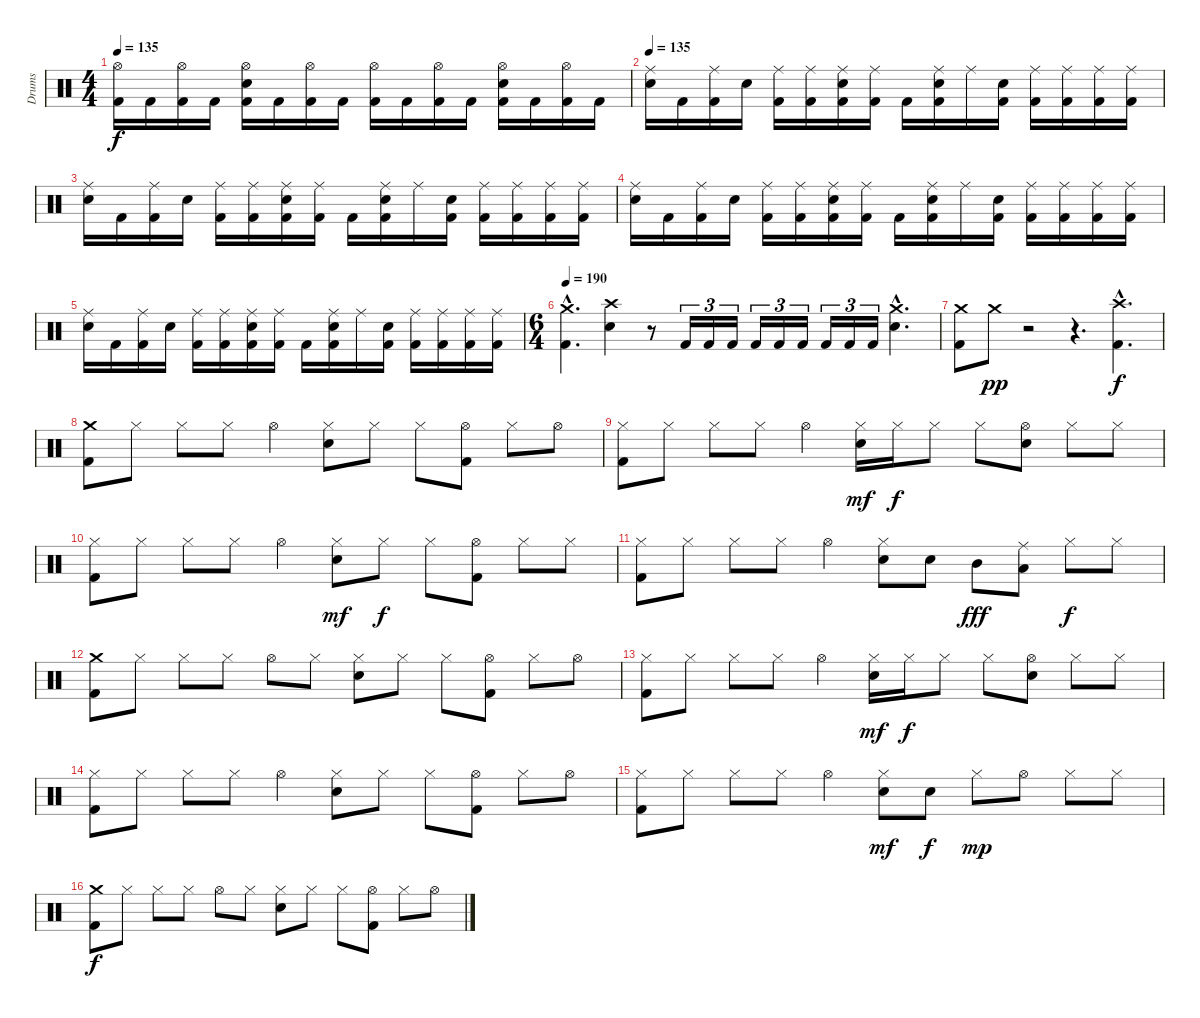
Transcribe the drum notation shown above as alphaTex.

\track ("Drums" "Drums") {instrument percussion}
\staff {score}
\articulation defaults
\ts (4 4)
\tempo 135
\clef neutral
\ks c
("Hi-Hat (open)" "Kick (hit) 2").16{dy f} "Kick (hit) 2".16 ("Hi-Hat (open)" "Kick (hit) 2").16 "Kick (hit) 2".16 ("Hi-Hat (open)" "Electric Snare (hit)" "Kick (hit) 2").16 "Kick (hit) 2".16 ("Hi-Hat (open)" "Kick (hit) 2").16 "Kick (hit) 2".16 ("Hi-Hat (open)" "Kick (hit) 2").16 "Kick (hit) 2".16 ("Hi-Hat (open)" "Kick (hit) 2").16 "Kick (hit) 2".16 ("Hi-Hat (open)" "Electric Snare (hit)" "Kick (hit) 2").16 "Kick (hit) 2".16 ("Hi-Hat (open)" "Kick (hit) 2").16 "Kick (hit) 2".16 |
\tempo 135
("Ride (middle)" "Electric Snare (hit)").16 "Kick (hit) 2".16 ("Ride (middle)" "Kick (hit) 2").16 "Electric Snare (hit)".16 ("Ride (middle)" "Kick (hit) 2").16 ("Ride (middle)" "Kick (hit) 2").16 ("Ride (middle)" "Electric Snare (hit)" "Kick (hit) 2").16 ("Ride (middle)" "Kick (hit) 2").16 "Kick (hit) 2".16 ("Ride (middle)" "Electric Snare (hit)" "Kick (hit) 2").16 "Ride (middle)".16 ("Electric Snare (hit)" "Kick (hit) 2").16 ("Ride (middle)" "Kick (hit) 2").16 ("Ride (middle)" "Kick (hit) 2").16 ("Ride (middle)" "Kick (hit) 2").16 ("Ride (middle)" "Kick (hit) 2").16 |
("Ride (middle)" "Electric Snare (hit)").16 "Kick (hit) 2".16 ("Ride (middle)" "Kick (hit) 2").16 "Electric Snare (hit)".16 ("Ride (middle)" "Kick (hit) 2").16 ("Ride (middle)" "Kick (hit) 2").16 ("Ride (middle)" "Electric Snare (hit)" "Kick (hit) 2").16 ("Ride (middle)" "Kick (hit) 2").16 "Kick (hit) 2".16 ("Ride (middle)" "Electric Snare (hit)" "Kick (hit) 2").16 "Ride (middle)".16 ("Electric Snare (hit)" "Kick (hit) 2").16 ("Ride (middle)" "Kick (hit) 2").16 ("Ride (middle)" "Kick (hit) 2").16 ("Ride (middle)" "Kick (hit) 2").16 ("Ride (middle)" "Kick (hit) 2").16 |
("Ride (middle)" "Electric Snare (hit)").16 "Kick (hit) 2".16 ("Ride (middle)" "Kick (hit) 2").16 "Electric Snare (hit)".16 ("Ride (middle)" "Kick (hit) 2").16 ("Ride (middle)" "Kick (hit) 2").16 ("Ride (middle)" "Electric Snare (hit)" "Kick (hit) 2").16 ("Ride (middle)" "Kick (hit) 2").16 "Kick (hit) 2".16 ("Ride (middle)" "Electric Snare (hit)" "Kick (hit) 2").16 "Ride (middle)".16 ("Electric Snare (hit)" "Kick (hit) 2").16 ("Ride (middle)" "Kick (hit) 2").16 ("Ride (middle)" "Kick (hit) 2").16 ("Ride (middle)" "Kick (hit) 2").16 ("Ride (middle)" "Kick (hit) 2").16 |
("Ride (middle)" "Electric Snare (hit)").16 "Kick (hit) 2".16 ("Ride (middle)" "Kick (hit) 2").16 "Electric Snare (hit)".16 ("Ride (middle)" "Kick (hit) 2").16 ("Ride (middle)" "Kick (hit) 2").16 ("Ride (middle)" "Electric Snare (hit)" "Kick (hit) 2").16 ("Ride (middle)" "Kick (hit) 2").16 "Kick (hit) 2".16 ("Ride (middle)" "Electric Snare (hit)" "Kick (hit) 2").16 "Ride (middle)".16 ("Electric Snare (hit)" "Kick (hit) 2").16 ("Ride (middle)" "Kick (hit) 2").16 ("Ride (middle)" "Kick (hit) 2").16 ("Ride (middle)" "Kick (hit) 2").16 ("Ride (middle)" "Kick (hit) 2").16 |
\ts (6 4)
\tempo 190
("Crash medium (hit)"{hac} "Kick (hit) 2"{hac}).4{d} ("Crash high (hit)" "Electric Snare (hit)").4 r.8 "Kick (hit) 2".16{tu (3 2)} "Kick (hit) 2".16{tu (3 2)} "Kick (hit) 2".16{tu (3 2)} "Kick (hit) 2".16{tu (3 2)} "Kick (hit) 2".16{tu (3 2)} "Kick (hit) 2".16{tu (3 2)} "Kick (hit) 2".16{tu (3 2)} "Kick (hit) 2".16{tu (3 2)} "Kick (hit) 2".16{tu (3 2)} ("Crash medium (hit)"{hac} "Electric Snare (hit)"{hac}).4{d} |
("Crash medium (hit)" "Kick (hit) 2").8 "Crash medium (hit)".8{dy pp} r.2 r.4{d} ("Crash high (hit)"{hac} "Kick (hit) 2"{hac}).4{d dy f} |
("Crash medium (hit)" "Kick (hit) 2").8 "Hi-Hat (closed)".8 "Hi-Hat (closed)".8 "Hi-Hat (closed)".8 "Hi-Hat (open)".4 ("Hi-Hat (closed)" "Electric Snare (hit)").8 "Hi-Hat (closed)".8 "Hi-Hat (closed)".8 ("Hi-Hat (open)" "Kick (hit) 2").8 "Hi-Hat (closed)".8 "Hi-Hat (open)".8 |
("Hi-Hat (closed)" "Kick (hit) 2").8 "Hi-Hat (closed)".8 "Hi-Hat (closed)".8 "Hi-Hat (closed)".8 "Hi-Hat (open)".4 ("Hi-Hat (closed)" "Electric Snare (hit)").16{dy mf} "Hi-Hat (closed)".16{dy f} "Hi-Hat (closed)".8 "Hi-Hat (closed)".8 ("Hi-Hat (open)" "Electric Snare (hit)").8 "Hi-Hat (closed)".8 "Hi-Hat (closed)".8 |
("Hi-Hat (closed)" "Kick (hit) 2").8 "Hi-Hat (closed)".8 "Hi-Hat (closed)".8 "Hi-Hat (closed)".8 "Hi-Hat (open)".4 ("Hi-Hat (closed)" "Electric Snare (hit)").8{dy mf} "Hi-Hat (closed)".8{dy f} "Hi-Hat (closed)".8 ("Hi-Hat (open)" "Kick (hit) 2").8 "Hi-Hat (closed)".8 "Hi-Hat (closed)".8 |
("Hi-Hat (closed)" "Kick (hit) 2").8 "Hi-Hat (closed)".8 "Hi-Hat (closed)".8 "Hi-Hat (closed)".8 "Hi-Hat (open)".4 ("Hi-Hat (closed)" "Electric Snare (hit)").8 "Electric Snare (hit)".8 "Mid Tom (hit)".8{dy fff} ("Ride (middle)" "Low Tom (hit)").8 "Hi-Hat (closed)".8{dy f} "Hi-Hat (closed)".8 |
("Crash medium (hit)" "Kick (hit) 2").8 "Hi-Hat (closed)".8 "Hi-Hat (closed)".8 "Hi-Hat (closed)".8 "Hi-Hat (open)".8 "Hi-Hat (closed)".8 ("Hi-Hat (closed)" "Electric Snare (hit)").8 "Hi-Hat (closed)".8 "Hi-Hat (closed)".8 ("Hi-Hat (open)" "Kick (hit) 2").8 "Hi-Hat (closed)".8 "Hi-Hat (open)".8 |
("Hi-Hat (closed)" "Kick (hit) 2").8 "Hi-Hat (closed)".8 "Hi-Hat (closed)".8 "Hi-Hat (closed)".8 "Hi-Hat (open)".4 ("Hi-Hat (closed)" "Electric Snare (hit)").16{dy mf} "Hi-Hat (closed)".16{dy f} "Hi-Hat (closed)".8 "Hi-Hat (closed)".8 ("Hi-Hat (open)" "Electric Snare (hit)").8 "Hi-Hat (closed)".8 "Hi-Hat (closed)".8 |
("Hi-Hat (closed)" "Kick (hit) 2").8 "Hi-Hat (closed)".8 "Hi-Hat (closed)".8 "Hi-Hat (closed)".8 "Hi-Hat (open)".4 ("Hi-Hat (closed)" "Electric Snare (hit)").8 "Hi-Hat (closed)".8 "Hi-Hat (closed)".8 ("Hi-Hat (open)" "Kick (hit) 2").8 "Hi-Hat (closed)".8 "Hi-Hat (open)".8 |
("Hi-Hat (closed)" "Kick (hit) 2").8 "Hi-Hat (closed)".8 "Hi-Hat (closed)".8 "Hi-Hat (closed)".8 "Hi-Hat (open)".4 ("Hi-Hat (closed)" "Electric Snare (hit)").8{dy mf} "Electric Snare (hit)".8{dy f} "Hi-Hat (closed)".8{dy mp} "Hi-Hat (open)".8 "Hi-Hat (closed)".8 "Hi-Hat (closed)".8 |
("Crash medium (hit)" "Kick (hit) 2").8{dy f} "Hi-Hat (closed)".8 "Hi-Hat (closed)".8 "Hi-Hat (closed)".8 "Hi-Hat (open)".8 "Hi-Hat (closed)".8 ("Hi-Hat (closed)" "Electric Snare (hit)").8 "Hi-Hat (closed)".8 "Hi-Hat (closed)".8 ("Hi-Hat (open)" "Kick (hit) 2").8 "Hi-Hat (closed)".8 "Hi-Hat (open)".8
